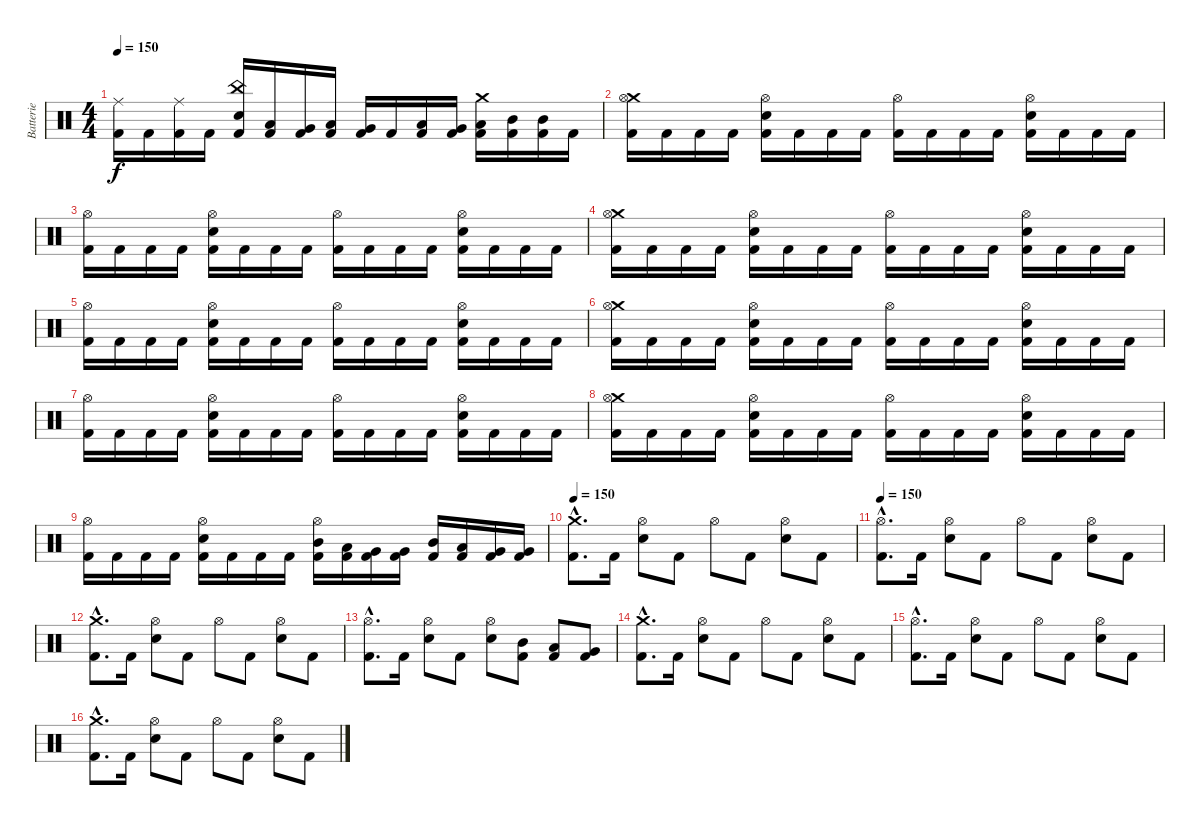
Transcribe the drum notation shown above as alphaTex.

\track ("Batterie" "Batterie") {instrument percussion}
\staff {score}
\articulation defaults
\ts (4 4)
\tempo 150
\clef neutral
\ks c
("Ride (middle)" "Kick (hit) 2").16{dy f} "Kick (hit) 2".16 ("Ride (middle)" "Kick (hit) 2").16 "Kick (hit) 2".16 ("China (hit)" "Electric Snare (hit)" "Kick (hit) 2").16 ("Low Tom (hit)" "Kick (hit) 2").16 ("Very Low Tom (hit)" "Kick (hit) 2").16 ("Low Tom (hit)" "Kick (hit) 2").16 ("Very Low Tom (hit)" "Kick (hit) 2").16 "Kick (hit) 2".16 ("Low Tom (hit)" "Kick (hit) 2").16 ("Very Low Tom (hit)" "Kick (hit) 2").16 ("Crash medium (hit)" "Low Tom (hit)" "Kick (hit) 2").16 ("Mid Tom (hit)" "Kick (hit) 2").16 ("Mid Tom (hit)" "Kick (hit) 2").16 "Kick (hit) 2".16 |
("Crash medium (hit)" "Hi-Hat (open)" "Kick (hit) 2").16 "Kick (hit) 2".16 "Kick (hit) 2".16 "Kick (hit) 2".16 ("Hi-Hat (open)" "Electric Snare (hit)" "Kick (hit) 2").16 "Kick (hit) 2".16 "Kick (hit) 2".16 "Kick (hit) 2".16 ("Hi-Hat (open)" "Kick (hit) 2").16 "Kick (hit) 2".16 "Kick (hit) 2".16 "Kick (hit) 2".16 ("Hi-Hat (open)" "Electric Snare (hit)" "Kick (hit) 2").16 "Kick (hit) 2".16 "Kick (hit) 2".16 "Kick (hit) 2".16 |
("Hi-Hat (open)" "Kick (hit) 2").16 "Kick (hit) 2".16 "Kick (hit) 2".16 "Kick (hit) 2".16 ("Hi-Hat (open)" "Electric Snare (hit)" "Kick (hit) 2").16 "Kick (hit) 2".16 "Kick (hit) 2".16 "Kick (hit) 2".16 ("Hi-Hat (open)" "Kick (hit) 2").16 "Kick (hit) 2".16 "Kick (hit) 2".16 "Kick (hit) 2".16 ("Hi-Hat (open)" "Electric Snare (hit)" "Kick (hit) 2").16 "Kick (hit) 2".16 "Kick (hit) 2".16 "Kick (hit) 2".16 |
("Crash medium (hit)" "Hi-Hat (open)" "Kick (hit) 2").16 "Kick (hit) 2".16 "Kick (hit) 2".16 "Kick (hit) 2".16 ("Hi-Hat (open)" "Electric Snare (hit)" "Kick (hit) 2").16 "Kick (hit) 2".16 "Kick (hit) 2".16 "Kick (hit) 2".16 ("Hi-Hat (open)" "Kick (hit) 2").16 "Kick (hit) 2".16 "Kick (hit) 2".16 "Kick (hit) 2".16 ("Hi-Hat (open)" "Electric Snare (hit)" "Kick (hit) 2").16 "Kick (hit) 2".16 "Kick (hit) 2".16 "Kick (hit) 2".16 |
("Hi-Hat (open)" "Kick (hit) 2").16 "Kick (hit) 2".16 "Kick (hit) 2".16 "Kick (hit) 2".16 ("Hi-Hat (open)" "Electric Snare (hit)" "Kick (hit) 2").16 "Kick (hit) 2".16 "Kick (hit) 2".16 "Kick (hit) 2".16 ("Hi-Hat (open)" "Kick (hit) 2").16 "Kick (hit) 2".16 "Kick (hit) 2".16 "Kick (hit) 2".16 ("Hi-Hat (open)" "Electric Snare (hit)" "Kick (hit) 2").16 "Kick (hit) 2".16 "Kick (hit) 2".16 "Kick (hit) 2".16 |
("Crash medium (hit)" "Hi-Hat (open)" "Kick (hit) 2").16 "Kick (hit) 2".16 "Kick (hit) 2".16 "Kick (hit) 2".16 ("Hi-Hat (open)" "Electric Snare (hit)" "Kick (hit) 2").16 "Kick (hit) 2".16 "Kick (hit) 2".16 "Kick (hit) 2".16 ("Hi-Hat (open)" "Kick (hit) 2").16 "Kick (hit) 2".16 "Kick (hit) 2".16 "Kick (hit) 2".16 ("Hi-Hat (open)" "Electric Snare (hit)" "Kick (hit) 2").16 "Kick (hit) 2".16 "Kick (hit) 2".16 "Kick (hit) 2".16 |
("Hi-Hat (open)" "Kick (hit) 2").16 "Kick (hit) 2".16 "Kick (hit) 2".16 "Kick (hit) 2".16 ("Hi-Hat (open)" "Electric Snare (hit)" "Kick (hit) 2").16 "Kick (hit) 2".16 "Kick (hit) 2".16 "Kick (hit) 2".16 ("Hi-Hat (open)" "Kick (hit) 2").16 "Kick (hit) 2".16 "Kick (hit) 2".16 "Kick (hit) 2".16 ("Hi-Hat (open)" "Electric Snare (hit)" "Kick (hit) 2").16 "Kick (hit) 2".16 "Kick (hit) 2".16 "Kick (hit) 2".16 |
("Crash medium (hit)" "Hi-Hat (open)" "Kick (hit) 2").16 "Kick (hit) 2".16 "Kick (hit) 2".16 "Kick (hit) 2".16 ("Hi-Hat (open)" "Electric Snare (hit)" "Kick (hit) 2").16 "Kick (hit) 2".16 "Kick (hit) 2".16 "Kick (hit) 2".16 ("Hi-Hat (open)" "Kick (hit) 2").16 "Kick (hit) 2".16 "Kick (hit) 2".16 "Kick (hit) 2".16 ("Hi-Hat (open)" "Electric Snare (hit)" "Kick (hit) 2").16 "Kick (hit) 2".16 "Kick (hit) 2".16 "Kick (hit) 2".16 |
("Hi-Hat (open)" "Kick (hit) 2").16 "Kick (hit) 2".16 "Kick (hit) 2".16 "Kick (hit) 2".16 ("Hi-Hat (open)" "Electric Snare (hit)" "Kick (hit) 2").16 "Kick (hit) 2".16 "Kick (hit) 2".16 "Kick (hit) 2".16 ("Hi-Hat (open)" "Mid Tom (hit)" "Kick (hit) 2").16 ("Low Tom (hit)" "Kick (hit) 2").16 ("Very Low Tom (hit)" "Kick (hit) 2").16 ("Very Low Tom (hit)" "Kick (hit) 2").16 ("Mid Tom (hit)" "Kick (hit) 2").16 ("Low Tom (hit)" "Kick (hit) 2").16 ("Very Low Tom (hit)" "Kick (hit) 2").16 ("Very Low Tom (hit)" "Kick (hit) 2").16 |
\tempo 150
("Crash medium (hit)"{hac} "Kick (hit) 2"{hac}).8{d} "Kick (hit) 2".16 ("Hi-Hat (open)" "Electric Snare (hit)").8 "Kick (hit) 2".8 "Hi-Hat (open)".8 "Kick (hit) 2".8 ("Hi-Hat (open)" "Electric Snare (hit)").8 "Kick (hit) 2".8 |
\tempo 150
("Hi-Hat (open)"{hac} "Kick (hit) 2"{hac}).8{d} "Kick (hit) 2".16 ("Hi-Hat (open)" "Electric Snare (hit)").8 "Kick (hit) 2".8 "Hi-Hat (open)".8 "Kick (hit) 2".8 ("Hi-Hat (open)" "Electric Snare (hit)").8 "Kick (hit) 2".8 |
("Crash medium (hit)"{hac} "Kick (hit) 2"{hac}).8{d} "Kick (hit) 2".16 ("Hi-Hat (open)" "Electric Snare (hit)").8 "Kick (hit) 2".8 "Hi-Hat (open)".8 "Kick (hit) 2".8 ("Hi-Hat (open)" "Electric Snare (hit)").8 "Kick (hit) 2".8 |
("Hi-Hat (open)"{hac} "Kick (hit) 2"{hac}).8{d} "Kick (hit) 2".16 ("Hi-Hat (open)" "Electric Snare (hit)").8 "Kick (hit) 2".8 ("Hi-Hat (open)" "Electric Snare (hit)").8 ("Mid Tom (hit)" "Kick (hit) 2").8 ("Low Tom (hit)" "Kick (hit) 2").8 ("Very Low Tom (hit)" "Kick (hit) 2").8 |
("Crash medium (hit)"{hac} "Kick (hit) 2"{hac}).8{d} "Kick (hit) 2".16 ("Hi-Hat (open)" "Electric Snare (hit)").8 "Kick (hit) 2".8 "Hi-Hat (open)".8 "Kick (hit) 2".8 ("Hi-Hat (open)" "Electric Snare (hit)").8 "Kick (hit) 2".8 |
("Hi-Hat (open)"{hac} "Kick (hit) 2"{hac}).8{d} "Kick (hit) 2".16 ("Hi-Hat (open)" "Electric Snare (hit)").8 "Kick (hit) 2".8 "Hi-Hat (open)".8 "Kick (hit) 2".8 ("Hi-Hat (open)" "Electric Snare (hit)").8 "Kick (hit) 2".8 |
("Crash medium (hit)"{hac} "Kick (hit) 2"{hac}).8{d} "Kick (hit) 2".16 ("Hi-Hat (open)" "Electric Snare (hit)").8 "Kick (hit) 2".8 "Hi-Hat (open)".8 "Kick (hit) 2".8 ("Hi-Hat (open)" "Electric Snare (hit)").8 "Kick (hit) 2".8
